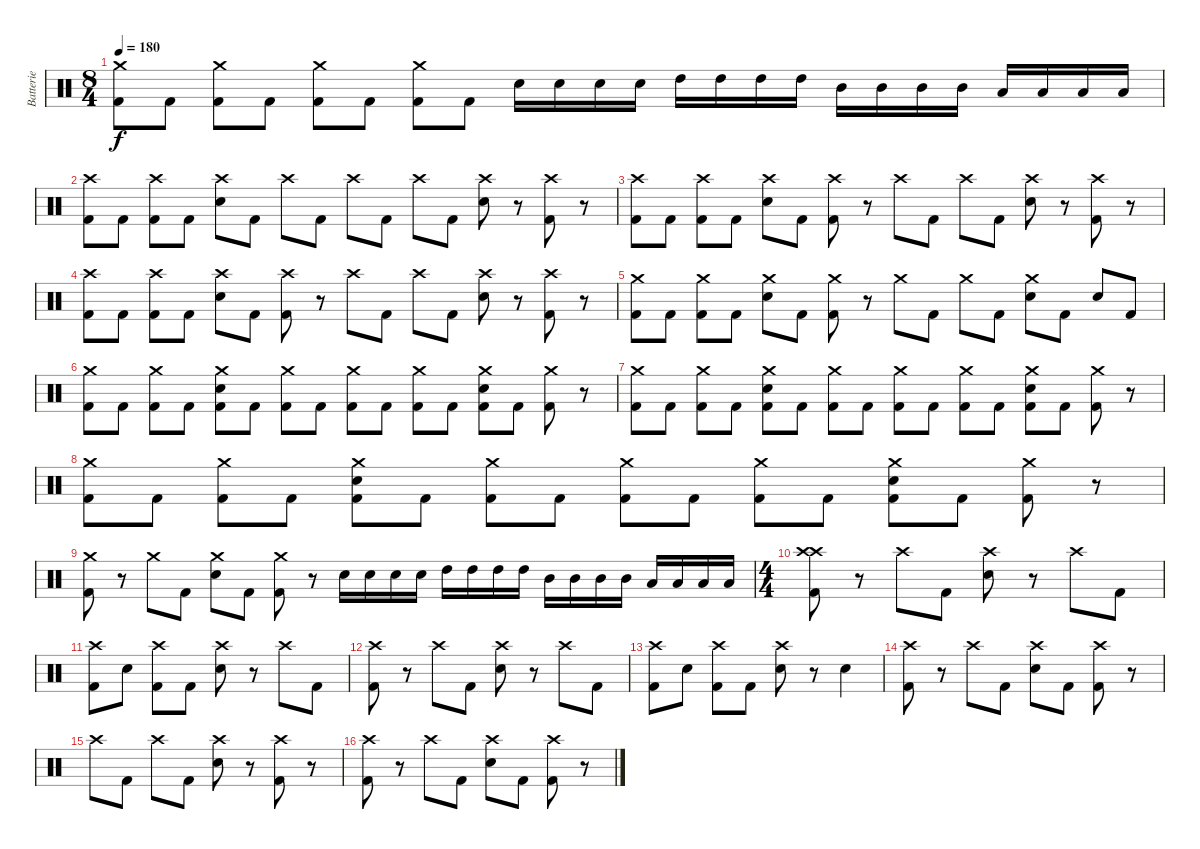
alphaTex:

\track ("Batterie" "Batterie") {instrument percussion}
\staff {score}
\articulation defaults
\ts (8 4)
\tempo 180
\clef neutral
\ks c
("Crash medium (hit)" "Kick (hit) 2").8{dy f} "Kick (hit) 2".8 ("Crash medium (hit)" "Kick (hit) 2").8 "Kick (hit) 2".8 ("Crash medium (hit)" "Kick (hit) 2").8 "Kick (hit) 2".8 ("Crash medium (hit)" "Kick (hit) 2").8 "Kick (hit) 2".8 "Snare (hit) 2".16 "Snare (hit) 2".16 "Snare (hit) 2".16 "Snare (hit) 2".16 "High Tom (hit)".16 "High Tom (hit)".16 "High Tom (hit)".16 "High Tom (hit)".16 "Mid Tom (hit)".16 "Mid Tom (hit)".16 "Mid Tom (hit)".16 "Mid Tom (hit)".16 "Low Tom (hit)".16 "Low Tom (hit)".16 "Low Tom (hit)".16 "Low Tom (hit)".16 |
("Crash high (hit)" "Kick (hit) 2").8 "Kick (hit) 2".8 ("Crash high (hit)" "Kick (hit) 2").8 "Kick (hit) 2".8 ("Crash high (hit)" "Snare (hit) 2").8 "Kick (hit) 2".8 "Crash high (hit)".8 "Kick (hit) 2".8 "Crash high (hit)".8 "Kick (hit) 2".8 "Crash high (hit)".8 "Kick (hit) 2".8 ("Crash high (hit)" "Snare (hit) 2").8 r.8 ("Crash high (hit)" "Kick (hit) 2").8 r.8 |
("Crash high (hit)" "Kick (hit) 2").8 "Kick (hit) 2".8 ("Crash high (hit)" "Kick (hit) 2").8 "Kick (hit) 2".8 ("Crash high (hit)" "Snare (hit) 2").8 "Kick (hit) 2".8 ("Crash high (hit)" "Kick (hit) 2").8 r.8 "Crash high (hit)".8 "Kick (hit) 2".8 "Crash high (hit)".8 "Kick (hit) 2".8 ("Crash high (hit)" "Snare (hit) 2").8 r.8 ("Crash high (hit)" "Kick (hit) 2").8 r.8 |
("Crash high (hit)" "Kick (hit) 2").8 "Kick (hit) 2".8 ("Crash high (hit)" "Kick (hit) 2").8 "Kick (hit) 2".8 ("Crash high (hit)" "Snare (hit) 2").8 "Kick (hit) 2".8 ("Crash high (hit)" "Kick (hit) 2").8 r.8 "Crash high (hit)".8 "Kick (hit) 2".8 "Crash high (hit)".8 "Kick (hit) 2".8 ("Crash high (hit)" "Snare (hit) 2").8 r.8 ("Crash high (hit)" "Kick (hit) 2").8 r.8 |
("Crash medium (hit)" "Kick (hit) 2").8 "Kick (hit) 2".8 ("Crash medium (hit)" "Kick (hit) 2").8 "Kick (hit) 2".8 ("Crash medium (hit)" "Snare (hit) 2").8 "Kick (hit) 2".8 ("Crash medium (hit)" "Kick (hit) 2").8 r.8 "Crash medium (hit)".8 "Kick (hit) 2".8 "Crash medium (hit)".8 "Kick (hit) 2".8 ("Crash medium (hit)" "Snare (hit) 2").8 "Kick (hit) 2".8 "Snare (hit) 2".8 "Kick (hit) 2".8 |
("Crash medium (hit)" "Kick (hit) 2").8 "Kick (hit) 2".8 ("Crash medium (hit)" "Kick (hit) 2").8 "Kick (hit) 2".8 ("Crash medium (hit)" "Snare (hit) 2" "Kick (hit) 2").8 "Kick (hit) 2".8 ("Crash medium (hit)" "Kick (hit) 2").8 "Kick (hit) 2".8 ("Crash medium (hit)" "Kick (hit) 2").8 "Kick (hit) 2".8 ("Crash medium (hit)" "Kick (hit) 2").8 "Kick (hit) 2".8 ("Crash medium (hit)" "Snare (hit) 2" "Kick (hit) 2").8 "Kick (hit) 2".8 ("Crash medium (hit)" "Kick (hit) 2").8 r.8 |
("Crash medium (hit)" "Kick (hit) 2").8 "Kick (hit) 2".8 ("Crash medium (hit)" "Kick (hit) 2").8 "Kick (hit) 2".8 ("Crash medium (hit)" "Snare (hit) 2" "Kick (hit) 2").8 "Kick (hit) 2".8 ("Crash medium (hit)" "Kick (hit) 2").8 "Kick (hit) 2".8 ("Crash medium (hit)" "Kick (hit) 2").8 "Kick (hit) 2".8 ("Crash medium (hit)" "Kick (hit) 2").8 "Kick (hit) 2".8 ("Crash medium (hit)" "Snare (hit) 2" "Kick (hit) 2").8 "Kick (hit) 2".8 ("Crash medium (hit)" "Kick (hit) 2").8 r.8 |
("Crash medium (hit)" "Kick (hit) 2").8 "Kick (hit) 2".8 ("Crash medium (hit)" "Kick (hit) 2").8 "Kick (hit) 2".8 ("Crash medium (hit)" "Snare (hit) 2" "Kick (hit) 2").8 "Kick (hit) 2".8 ("Crash medium (hit)" "Kick (hit) 2").8 "Kick (hit) 2".8 ("Crash medium (hit)" "Kick (hit) 2").8 "Kick (hit) 2".8 ("Crash medium (hit)" "Kick (hit) 2").8 "Kick (hit) 2".8 ("Crash medium (hit)" "Snare (hit) 2" "Kick (hit) 2").8 "Kick (hit) 2".8 ("Crash medium (hit)" "Kick (hit) 2").8 r.8 |
("Crash medium (hit)" "Kick (hit) 2").8 r.8 "Crash medium (hit)".8 "Kick (hit) 2".8 ("Crash medium (hit)" "Snare (hit) 2").8 "Kick (hit) 2".8 ("Crash medium (hit)" "Kick (hit) 2").8 r.8 "Snare (hit) 2".16 "Snare (hit) 2".16 "Snare (hit) 2".16 "Snare (hit) 2".16 "High Tom (hit)".16 "High Tom (hit)".16 "High Tom (hit)".16 "High Tom (hit)".16 "Mid Tom (hit)".16 "Mid Tom (hit)".16 "Mid Tom (hit)".16 "Mid Tom (hit)".16 "Low Tom (hit)".16 "Low Tom (hit)".16 "Low Tom (hit)".16 "Low Tom (hit)".16 |
\ts (4 4)
("Crash high (hit)" "Crash high (hit)" "Kick (hit) 2").8 r.8 "Crash high (hit)".8 "Kick (hit) 2".8 ("Crash high (hit)" "Snare (hit) 2").8 r.8 "Crash high (hit)".8 "Kick (hit) 2".8 |
("Crash high (hit)" "Kick (hit) 2").8 "Snare (hit) 2".8 ("Crash high (hit)" "Kick (hit) 2").8 "Kick (hit) 2".8 ("Crash high (hit)" "Snare (hit) 2").8 r.8 "Crash high (hit)".8 "Kick (hit) 2".8 |
("Crash high (hit)" "Kick (hit) 2").8 r.8 "Crash high (hit)".8 "Kick (hit) 2".8 ("Crash high (hit)" "Snare (hit) 2").8 r.8 "Crash high (hit)".8 "Kick (hit) 2".8 |
("Crash high (hit)" "Kick (hit) 2").8 "Snare (hit) 2".8 ("Crash high (hit)" "Kick (hit) 2").8 "Kick (hit) 2".8 ("Crash high (hit)" "Snare (hit) 2").8 r.8 "Snare (hit) 2".4 |
("Crash high (hit)" "Kick (hit) 2").8 r.8 "Crash high (hit)".8 "Kick (hit) 2".8 ("Crash high (hit)" "Snare (hit) 2").8 "Kick (hit) 2".8 ("Crash high (hit)" "Kick (hit) 2").8 r.8 |
"Crash high (hit)".8 "Kick (hit) 2".8 "Crash high (hit)".8 "Kick (hit) 2".8 ("Crash high (hit)" "Snare (hit) 2").8 r.8 ("Crash high (hit)" "Kick (hit) 2").8 r.8 |
("Crash high (hit)" "Kick (hit) 2").8 r.8 "Crash high (hit)".8 "Kick (hit) 2".8 ("Crash high (hit)" "Snare (hit) 2").8 "Kick (hit) 2".8 ("Crash high (hit)" "Kick (hit) 2").8 r.8
